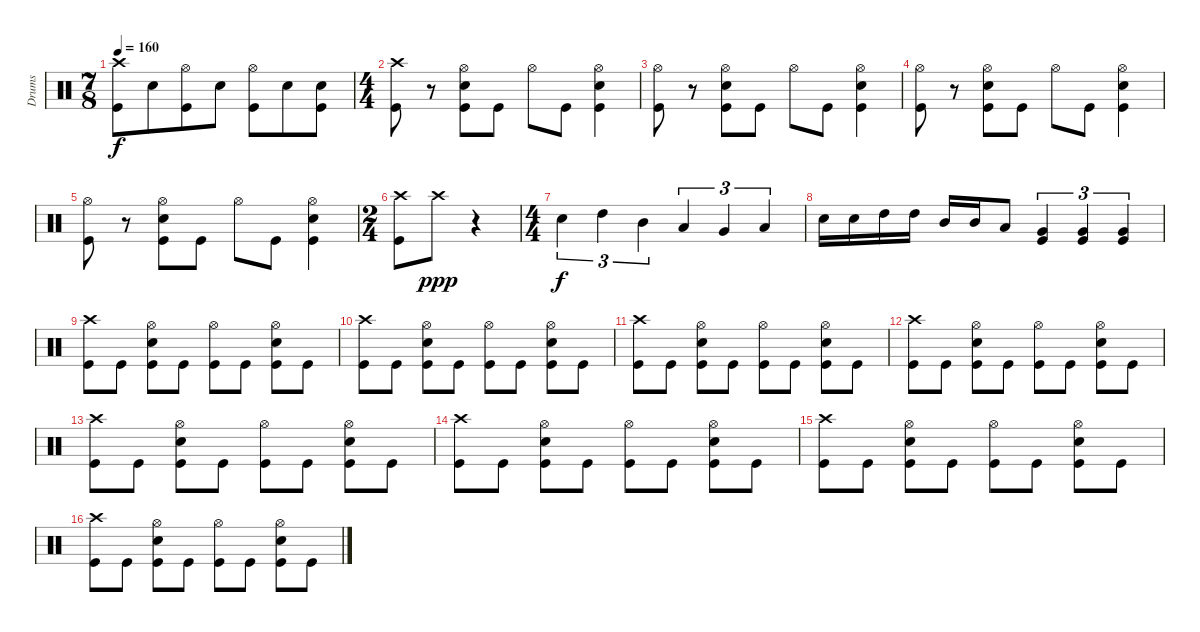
\track ("Drums" "Drums") {instrument percussion}
\staff {score}
\articulation defaults
\ts (7 8)
\tempo 160
\clef neutral
\ks c
("Crash high (hit)" "Kick (hit)").8{dy f} "Electric Snare (hit)".8 ("Hi-Hat (open)" "Kick (hit)").8 "Electric Snare (hit)".8 ("Hi-Hat (open)" "Kick (hit)").8 "Electric Snare (hit)".8 ("Electric Snare (hit)" "Kick (hit)").8 |
\ts (4 4)
("Crash high (hit)" "Kick (hit)").8 r.8 ("Hi-Hat (open)" "Electric Snare (hit)" "Kick (hit)").8 "Kick (hit)".8 "Hi-Hat (open)".8 "Kick (hit)".8 ("Hi-Hat (open)" "Electric Snare (hit)" "Kick (hit)").4 |
("Hi-Hat (open)" "Kick (hit)").8 r.8 ("Hi-Hat (open)" "Electric Snare (hit)" "Kick (hit)").8 "Kick (hit)".8 "Hi-Hat (open)".8 "Kick (hit)".8 ("Hi-Hat (open)" "Electric Snare (hit)" "Kick (hit)").4 |
("Hi-Hat (open)" "Kick (hit)").8 r.8 ("Hi-Hat (open)" "Electric Snare (hit)" "Kick (hit)").8 "Kick (hit)".8 "Hi-Hat (open)".8 "Kick (hit)".8 ("Hi-Hat (open)" "Electric Snare (hit)" "Kick (hit)").4 |
("Hi-Hat (open)" "Kick (hit)").8 r.8 ("Hi-Hat (open)" "Electric Snare (hit)" "Kick (hit)").8 "Kick (hit)".8 "Hi-Hat (open)".8 "Kick (hit)".8 ("Hi-Hat (open)" "Electric Snare (hit)" "Kick (hit)").4 |
\ts (2 4)
("Crash high (hit)" "Kick (hit)").8 "Crash high (hit)".8{dy ppp} r.4 |
\ts (4 4)
"Electric Snare (hit)".4{tu (3 2) dy f} "High Tom (hit)".4{tu (3 2)} "Mid Tom (hit)".4{tu (3 2)} "Low Tom (hit)".4{tu (3 2)} "Very Low Tom (hit)".4{tu (3 2)} "Low Floor Tom (hit)".4{tu (3 2)} |
"Electric Snare (hit)".16 "Electric Snare (hit)".16 "High Tom (hit)".16 "High Tom (hit)".16 "Mid Tom (hit)".16 "Mid Tom (hit)".16 "Low Tom (hit)".8 ("Very Low Tom (hit)" "Kick (hit)").4{tu (3 2)} ("Very Low Tom (hit)" "Kick (hit)").4{tu (3 2)} ("Very Low Tom (hit)" "Kick (hit)").4{tu (3 2)} |
("Crash high (hit)" "Kick (hit)").8 "Kick (hit)".8 ("Hi-Hat (open)" "Electric Snare (hit)" "Kick (hit)").8 "Kick (hit)".8 ("Hi-Hat (open)" "Kick (hit)").8 "Kick (hit)".8 ("Hi-Hat (open)" "Electric Snare (hit)" "Kick (hit)").8 "Kick (hit)".8 |
("Crash high (hit)" "Kick (hit)").8 "Kick (hit)".8 ("Hi-Hat (open)" "Electric Snare (hit)" "Kick (hit)").8 "Kick (hit)".8 ("Hi-Hat (open)" "Kick (hit)").8 "Kick (hit)".8 ("Hi-Hat (open)" "Electric Snare (hit)" "Kick (hit)").8 "Kick (hit)".8 |
("Crash high (hit)" "Kick (hit)").8 "Kick (hit)".8 ("Hi-Hat (open)" "Electric Snare (hit)" "Kick (hit)").8 "Kick (hit)".8 ("Hi-Hat (open)" "Kick (hit)").8 "Kick (hit)".8 ("Hi-Hat (open)" "Electric Snare (hit)" "Kick (hit)").8 "Kick (hit)".8 |
("Crash high (hit)" "Kick (hit)").8 "Kick (hit)".8 ("Hi-Hat (open)" "Electric Snare (hit)" "Kick (hit)").8 "Kick (hit)".8 ("Hi-Hat (open)" "Kick (hit)").8 "Kick (hit)".8 ("Hi-Hat (open)" "Electric Snare (hit)" "Kick (hit)").8 "Kick (hit)".8 |
("Crash high (hit)" "Kick (hit)").8 "Kick (hit)".8 ("Hi-Hat (open)" "Electric Snare (hit)" "Kick (hit)").8 "Kick (hit)".8 ("Hi-Hat (open)" "Kick (hit)").8 "Kick (hit)".8 ("Hi-Hat (open)" "Electric Snare (hit)" "Kick (hit)").8 "Kick (hit)".8 |
("Crash high (hit)" "Kick (hit)").8 "Kick (hit)".8 ("Hi-Hat (open)" "Electric Snare (hit)" "Kick (hit)").8 "Kick (hit)".8 ("Hi-Hat (open)" "Kick (hit)").8 "Kick (hit)".8 ("Hi-Hat (open)" "Electric Snare (hit)" "Kick (hit)").8 "Kick (hit)".8 |
("Crash high (hit)" "Kick (hit)").8 "Kick (hit)".8 ("Hi-Hat (open)" "Electric Snare (hit)" "Kick (hit)").8 "Kick (hit)".8 ("Hi-Hat (open)" "Kick (hit)").8 "Kick (hit)".8 ("Hi-Hat (open)" "Electric Snare (hit)" "Kick (hit)").8 "Kick (hit)".8 |
("Crash high (hit)" "Kick (hit)").8 "Kick (hit)".8 ("Hi-Hat (open)" "Electric Snare (hit)" "Kick (hit)").8 "Kick (hit)".8 ("Hi-Hat (open)" "Kick (hit)").8 "Kick (hit)".8 ("Hi-Hat (open)" "Electric Snare (hit)" "Kick (hit)").8 "Kick (hit)".8
